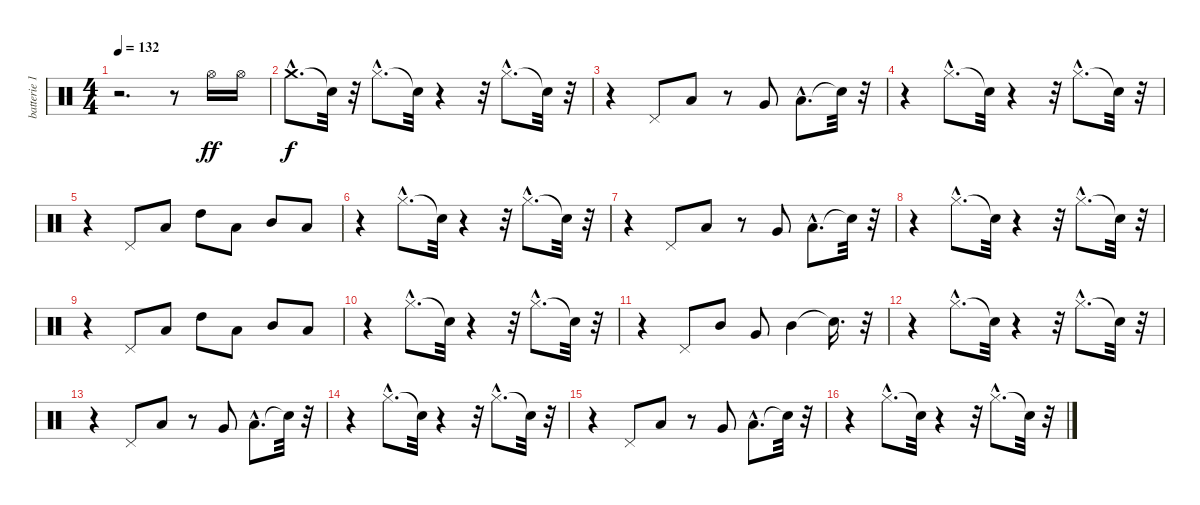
\track ("batterie 1" "batterie 1") {instrument percussion}
\staff {score}
\articulation defaults
\ts (4 4)
\tempo 132
\clef neutral
\ks c
r.2{d dy ff} r.8 "Hi-Hat (open)".16 "Hi-Hat (open)".16 |
"Crash medium (hit)"{hac}.8{d dy f} "Snare (hit)"{t}.32 r.32 "Hi-Hat (closed)"{hac}.8{d} "Snare (hit)"{t}.32 r.4 r.32 "Hi-Hat (closed)"{hac}.8{d} "Snare (hit)"{t}.32 r.32 |
r.4 "Pedal Hi-Hat (hit)".8 "Low Tom (hit)".8 r.8 "Very Low Tom (hit)".8 "Low Floor Tom (hit)"{hac}.8{d} "Snare (hit)"{t}.32 r.32 |
r.4 "Hi-Hat (closed)"{hac}.8{d} "Snare (hit)"{t}.32 r.4 r.32 "Hi-Hat (closed)"{hac}.8{d} "Snare (hit)"{t}.32 r.32 |
r.4 "Pedal Hi-Hat (hit)".8 "Low Floor Tom (hit)".8 "High Tom (hit)".8 "Low Floor Tom (hit)".8 "Mid Tom (hit)".8 "Low Floor Tom (hit)".8 |
r.4 "Hi-Hat (closed)"{hac}.8{d} "Snare (hit)"{t}.32 r.4 r.32 "Hi-Hat (closed)"{hac}.8{d} "Snare (hit)"{t}.32 r.32 |
r.4 "Pedal Hi-Hat (hit)".8 "Low Tom (hit)".8 r.8 "Very Low Tom (hit)".8 "Low Floor Tom (hit)"{hac}.8{d} "Snare (hit)"{t}.32 r.32 |
r.4 "Hi-Hat (closed)"{hac}.8{d} "Snare (hit)"{t}.32 r.4 r.32 "Hi-Hat (closed)"{hac}.8{d} "Snare (hit)"{t}.32 r.32 |
r.4 "Pedal Hi-Hat (hit)".8 "Low Floor Tom (hit)".8 "High Tom (hit)".8 "Low Floor Tom (hit)".8 "Mid Tom (hit)".8 "Low Floor Tom (hit)".8 |
r.4 "Hi-Hat (closed)"{hac}.8{d} "Snare (hit)"{t}.32 r.4 r.32 "Hi-Hat (closed)"{hac}.8{d} "Snare (hit)"{t}.32 r.32 |
r.4 "Pedal Hi-Hat (hit)".8 "Mid Tom (hit)".8 "Very Low Tom (hit)".8 "Mid Tom (hit)".4 "Snare (hit)"{t}.16{d} r.32 |
r.4 "Hi-Hat (closed)"{hac}.8{d} "Snare (hit)"{t}.32 r.4 r.32 "Hi-Hat (closed)"{hac}.8{d} "Snare (hit)"{t}.32 r.32 |
r.4 "Pedal Hi-Hat (hit)".8 "Low Tom (hit)".8 r.8 "Very Low Tom (hit)".8 "Low Floor Tom (hit)"{hac}.8{d} "Snare (hit)"{t}.32 r.32 |
r.4 "Hi-Hat (closed)"{hac}.8{d} "Snare (hit)"{t}.32 r.4 r.32 "Hi-Hat (closed)"{hac}.8{d} "Snare (hit)"{t}.32 r.32 |
r.4 "Pedal Hi-Hat (hit)".8 "Low Tom (hit)".8 r.8 "Very Low Tom (hit)".8 "Low Floor Tom (hit)"{hac}.8{d} "Snare (hit)"{t}.32 r.32 |
r.4 "Hi-Hat (closed)"{hac}.8{d} "Snare (hit)"{t}.32 r.4 r.32 "Hi-Hat (closed)"{hac}.8{d} "Snare (hit)"{t}.32 r.32
